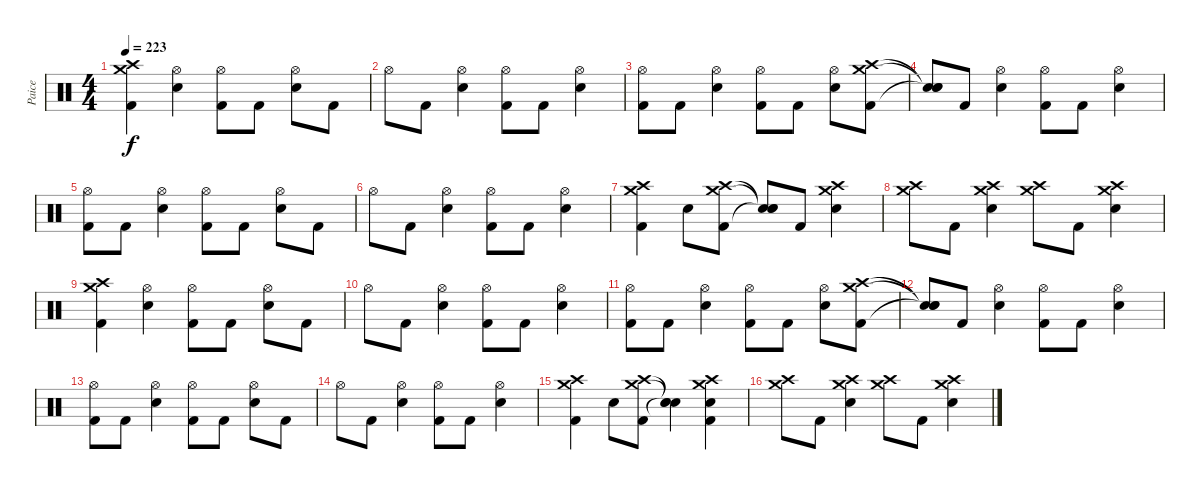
\track ("Paice" "Paice") {instrument percussion}
\staff {score}
\articulation defaults
\ts (4 4)
\tempo 223
\clef neutral
\ks c
("Crash high (hit)" "Crash medium (hit)" "Kick (hit) 2").4{dy f} ("Hi-Hat (open)" "Electric Snare (hit)").4 ("Hi-Hat (open)" "Kick (hit) 2").8 "Kick (hit) 2".8 ("Hi-Hat (open)" "Electric Snare (hit)").8 "Kick (hit) 2".8 |
"Hi-Hat (open)".8 "Kick (hit) 2".8 ("Hi-Hat (open)" "Electric Snare (hit)").4 ("Hi-Hat (open)" "Kick (hit) 2").8 "Kick (hit) 2".8 ("Hi-Hat (open)" "Electric Snare (hit)").4 |
("Hi-Hat (open)" "Kick (hit) 2").8 "Kick (hit) 2".8 ("Hi-Hat (open)" "Electric Snare (hit)").4 ("Hi-Hat (open)" "Kick (hit) 2").8 "Kick (hit) 2".8 ("Hi-Hat (open)" "Electric Snare (hit)").8 ("Crash high (hit)" "Crash medium (hit)" "Kick (hit) 2").8 |
("Snare (hit)"{t} "Snare (hit)"{t} "Snare (hit)"{t}).8 "Kick (hit) 2".8 ("Hi-Hat (open)" "Electric Snare (hit)").4 ("Hi-Hat (open)" "Kick (hit) 2").8 "Kick (hit) 2".8 ("Hi-Hat (open)" "Electric Snare (hit)").4 |
("Hi-Hat (open)" "Kick (hit) 2").8 "Kick (hit) 2".8 ("Hi-Hat (open)" "Electric Snare (hit)").4 ("Hi-Hat (open)" "Kick (hit) 2").8 "Kick (hit) 2".8 ("Hi-Hat (open)" "Electric Snare (hit)").8 "Kick (hit) 2".8 |
"Hi-Hat (open)".8 "Kick (hit) 2".8 ("Hi-Hat (open)" "Electric Snare (hit)").4 ("Hi-Hat (open)" "Kick (hit) 2").8 "Kick (hit) 2".8 ("Hi-Hat (open)" "Electric Snare (hit)").4 |
("Crash high (hit)" "Crash medium (hit)" "Kick (hit) 2").4 "Electric Snare (hit)".8 ("Crash high (hit)" "Crash medium (hit)" "Kick (hit) 2").8 ("Snare (hit)"{t} "Snare (hit)"{t} "Snare (hit)"{t}).8 "Kick (hit) 2".8 ("Crash high (hit)" "Crash medium (hit)" "Electric Snare (hit)").4 |
("Crash high (hit)" "Crash medium (hit)").8 "Kick (hit) 2".8 ("Crash high (hit)" "Crash medium (hit)" "Electric Snare (hit)").4 ("Crash high (hit)" "Crash medium (hit)").8 "Kick (hit) 2".8 ("Crash high (hit)" "Crash medium (hit)" "Electric Snare (hit)").4 |
("Crash high (hit)" "Crash medium (hit)" "Kick (hit) 2").4 ("Hi-Hat (open)" "Electric Snare (hit)").4 ("Hi-Hat (open)" "Kick (hit) 2").8 "Kick (hit) 2".8 ("Hi-Hat (open)" "Electric Snare (hit)").8 "Kick (hit) 2".8 |
"Hi-Hat (open)".8 "Kick (hit) 2".8 ("Hi-Hat (open)" "Electric Snare (hit)").4 ("Hi-Hat (open)" "Kick (hit) 2").8 "Kick (hit) 2".8 ("Hi-Hat (open)" "Electric Snare (hit)").4 |
("Hi-Hat (open)" "Kick (hit) 2").8 "Kick (hit) 2".8 ("Hi-Hat (open)" "Electric Snare (hit)").4 ("Hi-Hat (open)" "Kick (hit) 2").8 "Kick (hit) 2".8 ("Hi-Hat (open)" "Electric Snare (hit)").8 ("Crash high (hit)" "Crash medium (hit)" "Kick (hit) 2").8 |
("Snare (hit)"{t} "Snare (hit)"{t} "Snare (hit)"{t}).8 "Kick (hit) 2".8 ("Hi-Hat (open)" "Electric Snare (hit)").4 ("Hi-Hat (open)" "Kick (hit) 2").8 "Kick (hit) 2".8 ("Hi-Hat (open)" "Electric Snare (hit)").4 |
("Hi-Hat (open)" "Kick (hit) 2").8 "Kick (hit) 2".8 ("Hi-Hat (open)" "Electric Snare (hit)").4 ("Hi-Hat (open)" "Kick (hit) 2").8 "Kick (hit) 2".8 ("Hi-Hat (open)" "Electric Snare (hit)").8 "Kick (hit) 2".8 |
"Hi-Hat (open)".8 "Kick (hit) 2".8 ("Hi-Hat (open)" "Electric Snare (hit)").4 ("Hi-Hat (open)" "Kick (hit) 2").8 "Kick (hit) 2".8 ("Hi-Hat (open)" "Electric Snare (hit)").4 |
("Crash high (hit)" "Crash medium (hit)" "Kick (hit) 2").4 "Electric Snare (hit)".8 ("Crash high (hit)" "Crash medium (hit)" "Kick (hit) 2").8 ("Snare (hit)"{t} "Snare (hit)"{t} "Snare (hit)"{t}).4 ("Crash high (hit)" "Crash medium (hit)" "Electric Snare (hit)" "Kick (hit) 2").4 |
("Crash high (hit)" "Crash medium (hit)").8 "Kick (hit) 2".8 ("Crash high (hit)" "Crash medium (hit)" "Electric Snare (hit)").4 ("Crash high (hit)" "Crash medium (hit)").8 "Kick (hit) 2".8 ("Crash high (hit)" "Crash medium (hit)" "Electric Snare (hit)").4
